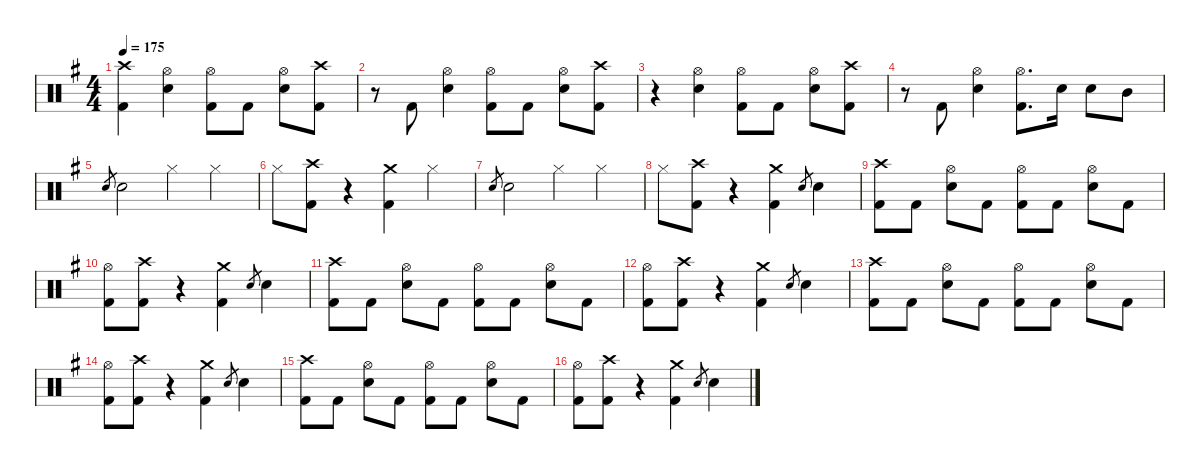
\hideDynamics
\bracketExtendMode nobrackets
\singleTrackTrackNamePolicy hidden
\multiTrackTrackNamePolicy hidden
\firstSystemTrackNameMode fullname
\firstSystemTrackNameOrientation horizontal
\otherSystemsTrackNameOrientation horizontal
\track ("Drumkit" "Drums") {instrument percussion}
\staff {score}
\articulation defaults
\ts (4 4)
\tempo 175
\clef neutral
\ks g
("Crash high (hit)"{acc forcenatural} "Kick (hit) 2"{acc forcenatural}).4{dy f beam Down} ("Hi-Hat (open)"{acc forcenatural} "Snare (hit) 2"{acc forcenatural}).4{beam Down} ("Hi-Hat (open)"{acc forcenatural} "Kick (hit) 2"{acc forcenatural}).8{beam Down} "Kick (hit) 2"{acc forcenatural}.8{dy fff beam Down} ("Hi-Hat (open)"{acc forcenatural} "Snare (hit) 2"{acc forcenatural}).8{dy f beam Down} ("Crash high (hit)"{acc forcenatural} "Kick (hit) 2"{acc forcenatural}).8{beam Down} |
r.8{beam Down} "Kick (hit) 2"{acc forcenatural}.8{dy fff beam Up} ("Hi-Hat (open)"{acc forcenatural} "Snare (hit) 2"{acc forcenatural}).4{dy f beam Down} ("Hi-Hat (open)"{acc forcenatural} "Kick (hit) 2"{acc forcenatural}).8{beam Down} "Kick (hit) 2"{acc forcenatural}.8{dy fff beam Down} ("Hi-Hat (open)"{acc forcenatural} "Snare (hit) 2"{acc forcenatural}).8{dy f beam Down} ("Crash high (hit)"{acc forcenatural} "Kick (hit) 2"{acc forcenatural}).8{beam Down} |
r.4{beam Down} ("Hi-Hat (open)"{acc forcenatural} "Snare (hit) 2"{acc forcenatural}).4{beam Down} ("Hi-Hat (open)"{acc forcenatural} "Kick (hit) 2"{acc forcenatural}).8{beam Down} "Kick (hit) 2"{acc forcenatural}.8{dy fff beam Down} ("Hi-Hat (open)"{acc forcenatural} "Snare (hit) 2"{acc forcenatural}).8{dy f beam Down} ("Crash high (hit)"{acc forcenatural} "Kick (hit) 2"{acc forcenatural}).8{beam Down} |
r.8{beam Down} "Kick (hit) 2"{acc forcenatural}.8{dy fff beam Up} ("Hi-Hat (open)"{acc forcenatural} "Snare (hit) 2"{acc forcenatural}).4{dy f beam Down} ("Hi-Hat (open)"{acc forcenatural} "Kick (hit) 2"{acc forcenatural}).8{d beam Down} "Snare (hit) 2"{acc forcenatural}.16{beam Down} "Snare (hit) 2"{acc forcenatural}.8{beam Down} "Mid Tom (hit)"{acc forcenatural}.8{beam Down} |
"Snare (hit) 2"{acc forcenatural}.8{gr dy mf beam Up} "Snare (hit) 2"{acc forcenatural}.2{dy f beam Down} "Hi-Hat (closed)"{acc forcenatural}.4{beam Down} "Hi-Hat (closed)"{acc forcenatural}.4{beam Down} |
"Hi-Hat (closed)"{acc forcenatural}.8{beam Down} ("Crash high (hit)"{acc forcenatural} "Kick (hit) 2"{acc forcenatural}).8{beam Down} r.4{beam Down} ("Crash medium (hit)"{acc forcenatural} "Kick (hit) 2"{acc forcenatural}).4{beam Down} "Hi-Hat (closed)"{acc forcenatural}.4{beam Down} |
"Snare (hit) 2"{acc forcenatural}.8{gr dy mf beam Up} "Snare (hit) 2"{acc forcenatural}.2{dy f beam Down} "Hi-Hat (closed)"{acc forcenatural}.4{beam Down} "Hi-Hat (closed)"{acc forcenatural}.4{beam Down} |
"Hi-Hat (closed)"{acc forcenatural}.8{beam Down} ("Crash high (hit)"{acc forcenatural} "Kick (hit) 2"{acc forcenatural}).8{beam Down} r.4{beam Down} ("Crash medium (hit)"{acc forcenatural} "Kick (hit) 2"{acc forcenatural}).4{beam Down} "Snare (hit) 2"{acc forcenatural}.8{gr dy mf beam Up} "Snare (hit) 2"{acc forcenatural}.4{dy f beam Down} |
("Crash high (hit)"{acc forcenatural} "Kick (hit) 2"{acc forcenatural}).8{beam Down} "Kick (hit) 2"{acc forcenatural}.8{dy fff beam Down} ("Hi-Hat (open)"{acc forcenatural} "Snare (hit) 2"{acc forcenatural}).8{dy f beam Down} "Kick (hit) 2"{acc forcenatural}.8{dy fff beam Down} ("Hi-Hat (open)"{acc forcenatural} "Kick (hit) 2"{acc forcenatural}).8{dy f beam Down} "Kick (hit) 2"{acc forcenatural}.8{dy fff beam Down} ("Hi-Hat (open)"{acc forcenatural} "Snare (hit) 2"{acc forcenatural}).8{dy f beam Down} "Kick (hit) 2"{acc forcenatural}.8{dy fff beam Down} |
("Hi-Hat (open)"{acc forcenatural} "Kick (hit) 2"{acc forcenatural}).8{dy f beam Down} ("Crash high (hit)"{acc forcenatural} "Kick (hit) 2"{acc forcenatural}).8{beam Down} r.4{beam Down} ("Crash medium (hit)"{acc forcenatural} "Kick (hit) 2"{acc forcenatural}).4{beam Down} "Snare (hit) 2"{acc forcenatural}.8{gr dy mf beam Up} "Snare (hit) 2"{acc forcenatural}.4{dy f beam Down} |
("Crash high (hit)"{acc forcenatural} "Kick (hit) 2"{acc forcenatural}).8{beam Down} "Kick (hit) 2"{acc forcenatural}.8{dy fff beam Down} ("Hi-Hat (open)"{acc forcenatural} "Snare (hit) 2"{acc forcenatural}).8{dy f beam Down} "Kick (hit) 2"{acc forcenatural}.8{dy fff beam Down} ("Hi-Hat (open)"{acc forcenatural} "Kick (hit) 2"{acc forcenatural}).8{dy f beam Down} "Kick (hit) 2"{acc forcenatural}.8{dy fff beam Down} ("Hi-Hat (open)"{acc forcenatural} "Snare (hit) 2"{acc forcenatural}).8{dy f beam Down} "Kick (hit) 2"{acc forcenatural}.8{dy fff beam Down} |
("Hi-Hat (open)"{acc forcenatural} "Kick (hit) 2"{acc forcenatural}).8{dy f beam Down} ("Crash high (hit)"{acc forcenatural} "Kick (hit) 2"{acc forcenatural}).8{beam Down} r.4{beam Down} ("Crash medium (hit)"{acc forcenatural} "Kick (hit) 2"{acc forcenatural}).4{beam Down} "Snare (hit) 2"{acc forcenatural}.8{gr dy mf beam Up} "Snare (hit) 2"{acc forcenatural}.4{dy f beam Down} |
("Crash high (hit)"{acc forcenatural} "Kick (hit) 2"{acc forcenatural}).8{beam Down} "Kick (hit) 2"{acc forcenatural}.8{dy fff beam Down} ("Hi-Hat (open)"{acc forcenatural} "Snare (hit) 2"{acc forcenatural}).8{dy f beam Down} "Kick (hit) 2"{acc forcenatural}.8{dy fff beam Down} ("Hi-Hat (open)"{acc forcenatural} "Kick (hit) 2"{acc forcenatural}).8{dy f beam Down} "Kick (hit) 2"{acc forcenatural}.8{dy fff beam Down} ("Hi-Hat (open)"{acc forcenatural} "Snare (hit) 2"{acc forcenatural}).8{dy f beam Down} "Kick (hit) 2"{acc forcenatural}.8{dy fff beam Down} |
("Hi-Hat (open)"{acc forcenatural} "Kick (hit) 2"{acc forcenatural}).8{dy f beam Down} ("Crash high (hit)"{acc forcenatural} "Kick (hit) 2"{acc forcenatural}).8{beam Down} r.4{beam Down} ("Crash medium (hit)"{acc forcenatural} "Kick (hit) 2"{acc forcenatural}).4{beam Down} "Snare (hit) 2"{acc forcenatural}.8{gr dy mf beam Up} "Snare (hit) 2"{acc forcenatural}.4{dy f beam Down} |
("Crash high (hit)"{acc forcenatural} "Kick (hit) 2"{acc forcenatural}).8{beam Down} "Kick (hit) 2"{acc forcenatural}.8{dy fff beam Down} ("Hi-Hat (open)"{acc forcenatural} "Snare (hit) 2"{acc forcenatural}).8{dy f beam Down} "Kick (hit) 2"{acc forcenatural}.8{dy fff beam Down} ("Hi-Hat (open)"{acc forcenatural} "Kick (hit) 2"{acc forcenatural}).8{dy f beam Down} "Kick (hit) 2"{acc forcenatural}.8{dy fff beam Down} ("Hi-Hat (open)"{acc forcenatural} "Snare (hit) 2"{acc forcenatural}).8{dy f beam Down} "Kick (hit) 2"{acc forcenatural}.8{dy fff beam Down} |
("Hi-Hat (open)"{acc forcenatural} "Kick (hit) 2"{acc forcenatural}).8{dy f beam Down} ("Crash high (hit)"{acc forcenatural} "Kick (hit) 2"{acc forcenatural}).8{beam Down} r.4{beam Down} ("Crash medium (hit)"{acc forcenatural} "Kick (hit) 2"{acc forcenatural}).4{beam Down} "Snare (hit) 2"{acc forcenatural}.8{gr dy mf beam Up} "Snare (hit) 2"{acc forcenatural}.4{dy f beam Down}
